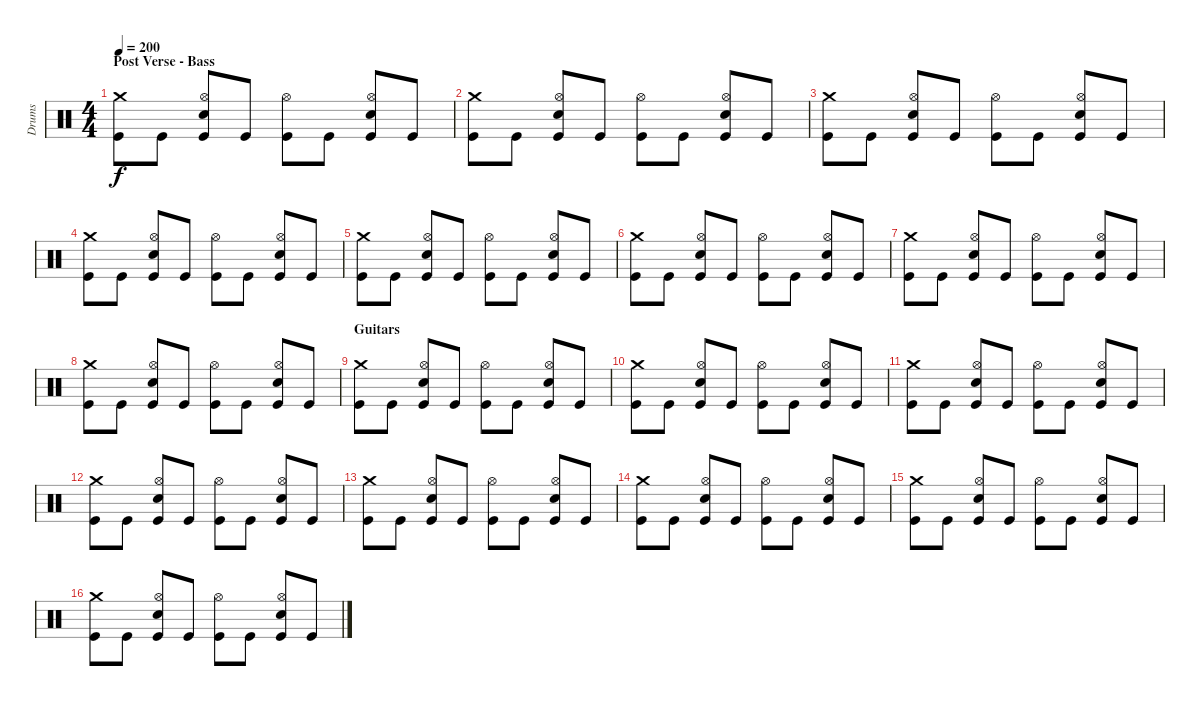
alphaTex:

\track ("Drums" "Drums") {instrument percussion}
\staff {score}
\articulation defaults
\ts (4 4)
\section ("" "Post Verse - Bass")
\tempo 200
\clef neutral
\ks c
("Crash medium (hit)" "Kick (hit)").8{dy f} "Kick (hit)".8 ("Hi-Hat (open)" "Electric Snare (hit)" "Kick (hit)").8 "Kick (hit)".8 ("Hi-Hat (open)" "Kick (hit)").8 "Kick (hit)".8 ("Hi-Hat (open)" "Electric Snare (hit)" "Kick (hit)").8 "Kick (hit)".8 |
("Crash medium (hit)" "Kick (hit)").8 "Kick (hit)".8 ("Hi-Hat (open)" "Electric Snare (hit)" "Kick (hit)").8 "Kick (hit)".8 ("Hi-Hat (open)" "Kick (hit)").8 "Kick (hit)".8 ("Hi-Hat (open)" "Electric Snare (hit)" "Kick (hit)").8 "Kick (hit)".8 |
("Crash medium (hit)" "Kick (hit)").8 "Kick (hit)".8 ("Hi-Hat (open)" "Electric Snare (hit)" "Kick (hit)").8 "Kick (hit)".8 ("Hi-Hat (open)" "Kick (hit)").8 "Kick (hit)".8 ("Hi-Hat (open)" "Electric Snare (hit)" "Kick (hit)").8 "Kick (hit)".8 |
("Crash medium (hit)" "Kick (hit)").8 "Kick (hit)".8 ("Hi-Hat (open)" "Electric Snare (hit)" "Kick (hit)").8 "Kick (hit)".8 ("Hi-Hat (open)" "Kick (hit)").8 "Kick (hit)".8 ("Hi-Hat (open)" "Electric Snare (hit)" "Kick (hit)").8 "Kick (hit)".8 |
("Crash medium (hit)" "Kick (hit)").8 "Kick (hit)".8 ("Hi-Hat (open)" "Electric Snare (hit)" "Kick (hit)").8 "Kick (hit)".8 ("Hi-Hat (open)" "Kick (hit)").8 "Kick (hit)".8 ("Hi-Hat (open)" "Electric Snare (hit)" "Kick (hit)").8 "Kick (hit)".8 |
("Crash medium (hit)" "Kick (hit)").8 "Kick (hit)".8 ("Hi-Hat (open)" "Electric Snare (hit)" "Kick (hit)").8 "Kick (hit)".8 ("Hi-Hat (open)" "Kick (hit)").8 "Kick (hit)".8 ("Hi-Hat (open)" "Electric Snare (hit)" "Kick (hit)").8 "Kick (hit)".8 |
("Crash medium (hit)" "Kick (hit)").8 "Kick (hit)".8 ("Hi-Hat (open)" "Electric Snare (hit)" "Kick (hit)").8 "Kick (hit)".8 ("Hi-Hat (open)" "Kick (hit)").8 "Kick (hit)".8 ("Hi-Hat (open)" "Electric Snare (hit)" "Kick (hit)").8 "Kick (hit)".8 |
("Crash medium (hit)" "Kick (hit)").8 "Kick (hit)".8 ("Hi-Hat (open)" "Electric Snare (hit)" "Kick (hit)").8 "Kick (hit)".8 ("Hi-Hat (open)" "Kick (hit)").8 "Kick (hit)".8 ("Hi-Hat (open)" "Electric Snare (hit)" "Kick (hit)").8 "Kick (hit)".8 |
\section ("" "Guitars")
("Crash medium (hit)" "Kick (hit)").8 "Kick (hit)".8 ("Hi-Hat (open)" "Electric Snare (hit)" "Kick (hit)").8 "Kick (hit)".8 ("Hi-Hat (open)" "Kick (hit)").8 "Kick (hit)".8 ("Hi-Hat (open)" "Electric Snare (hit)" "Kick (hit)").8 "Kick (hit)".8 |
("Crash medium (hit)" "Kick (hit)").8 "Kick (hit)".8 ("Hi-Hat (open)" "Electric Snare (hit)" "Kick (hit)").8 "Kick (hit)".8 ("Hi-Hat (open)" "Kick (hit)").8 "Kick (hit)".8 ("Hi-Hat (open)" "Electric Snare (hit)" "Kick (hit)").8 "Kick (hit)".8 |
("Crash medium (hit)" "Kick (hit)").8 "Kick (hit)".8 ("Hi-Hat (open)" "Electric Snare (hit)" "Kick (hit)").8 "Kick (hit)".8 ("Hi-Hat (open)" "Kick (hit)").8 "Kick (hit)".8 ("Hi-Hat (open)" "Electric Snare (hit)" "Kick (hit)").8 "Kick (hit)".8 |
("Crash medium (hit)" "Kick (hit)").8 "Kick (hit)".8 ("Hi-Hat (open)" "Electric Snare (hit)" "Kick (hit)").8 "Kick (hit)".8 ("Hi-Hat (open)" "Kick (hit)").8 "Kick (hit)".8 ("Hi-Hat (open)" "Electric Snare (hit)" "Kick (hit)").8 "Kick (hit)".8 |
("Crash medium (hit)" "Kick (hit)").8 "Kick (hit)".8 ("Hi-Hat (open)" "Electric Snare (hit)" "Kick (hit)").8 "Kick (hit)".8 ("Hi-Hat (open)" "Kick (hit)").8 "Kick (hit)".8 ("Hi-Hat (open)" "Electric Snare (hit)" "Kick (hit)").8 "Kick (hit)".8 |
("Crash medium (hit)" "Kick (hit)").8 "Kick (hit)".8 ("Hi-Hat (open)" "Electric Snare (hit)" "Kick (hit)").8 "Kick (hit)".8 ("Hi-Hat (open)" "Kick (hit)").8 "Kick (hit)".8 ("Hi-Hat (open)" "Electric Snare (hit)" "Kick (hit)").8 "Kick (hit)".8 |
("Crash medium (hit)" "Kick (hit)").8 "Kick (hit)".8 ("Hi-Hat (open)" "Electric Snare (hit)" "Kick (hit)").8 "Kick (hit)".8 ("Hi-Hat (open)" "Kick (hit)").8 "Kick (hit)".8 ("Hi-Hat (open)" "Electric Snare (hit)" "Kick (hit)").8 "Kick (hit)".8 |
("Crash medium (hit)" "Kick (hit)").8 "Kick (hit)".8 ("Hi-Hat (open)" "Electric Snare (hit)" "Kick (hit)").8 "Kick (hit)".8 ("Hi-Hat (open)" "Kick (hit)").8 "Kick (hit)".8 ("Hi-Hat (open)" "Electric Snare (hit)" "Kick (hit)").8 "Kick (hit)".8
